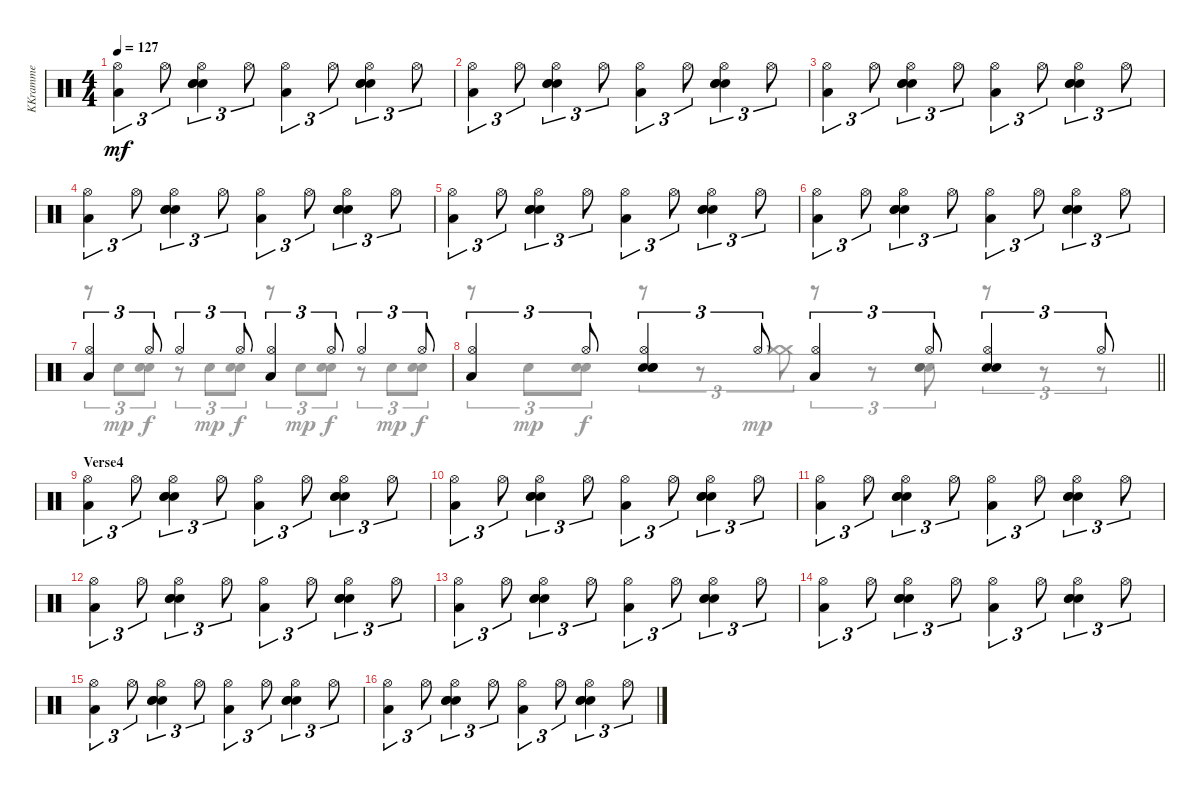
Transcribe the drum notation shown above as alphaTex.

\track ("KKramme" "KKramme") {instrument percussion}
\staff {score}
\articulation defaults
\voice
\ts (4 4)
\tempo 127
\clef neutral
\ks c
("Low Tom (hit)" "Hi-Hat (open)").4{tu (3 2) dy mf} "Hi-Hat (open)".8{tu (3 2)} ("Snare (hit) 2" "Snare (hit) 2" "Snare (hit) 2" "Hi-Hat (open)").4{tu (3 2)} "Hi-Hat (open)".8{tu (3 2)} ("Low Tom (hit)" "Hi-Hat (open)").4{tu (3 2)} "Hi-Hat (open)".8{tu (3 2)} ("Snare (hit) 2" "Snare (hit) 2" "Snare (hit) 2" "Hi-Hat (open)").4{tu (3 2)} "Hi-Hat (open)".8{tu (3 2)} |
("Low Tom (hit)" "Hi-Hat (open)").4{tu (3 2)} "Hi-Hat (open)".8{tu (3 2)} ("Snare (hit) 2" "Snare (hit) 2" "Snare (hit) 2" "Hi-Hat (open)").4{tu (3 2)} "Hi-Hat (open)".8{tu (3 2)} ("Low Tom (hit)" "Hi-Hat (open)").4{tu (3 2)} "Hi-Hat (open)".8{tu (3 2)} ("Snare (hit) 2" "Snare (hit) 2" "Snare (hit) 2" "Hi-Hat (open)").4{tu (3 2)} "Hi-Hat (open)".8{tu (3 2)} |
("Low Tom (hit)" "Hi-Hat (open)").4{tu (3 2)} "Hi-Hat (open)".8{tu (3 2)} ("Snare (hit) 2" "Snare (hit) 2" "Snare (hit) 2" "Hi-Hat (open)").4{tu (3 2)} "Hi-Hat (open)".8{tu (3 2)} ("Low Tom (hit)" "Hi-Hat (open)").4{tu (3 2)} "Hi-Hat (open)".8{tu (3 2)} ("Snare (hit) 2" "Snare (hit) 2" "Snare (hit) 2" "Hi-Hat (open)").4{tu (3 2)} "Hi-Hat (open)".8{tu (3 2)} |
("Low Tom (hit)" "Hi-Hat (open)").4{tu (3 2)} "Hi-Hat (open)".8{tu (3 2)} ("Snare (hit) 2" "Snare (hit) 2" "Snare (hit) 2" "Hi-Hat (open)").4{tu (3 2)} "Hi-Hat (open)".8{tu (3 2)} ("Low Tom (hit)" "Hi-Hat (open)").4{tu (3 2)} "Hi-Hat (open)".8{tu (3 2)} ("Snare (hit) 2" "Snare (hit) 2" "Snare (hit) 2" "Hi-Hat (open)").4{tu (3 2)} "Hi-Hat (open)".8{tu (3 2)} |
("Low Tom (hit)" "Hi-Hat (open)").4{tu (3 2)} "Hi-Hat (open)".8{tu (3 2)} ("Snare (hit) 2" "Snare (hit) 2" "Snare (hit) 2" "Hi-Hat (open)").4{tu (3 2)} "Hi-Hat (open)".8{tu (3 2)} ("Low Tom (hit)" "Hi-Hat (open)").4{tu (3 2)} "Hi-Hat (open)".8{tu (3 2)} ("Snare (hit) 2" "Snare (hit) 2" "Snare (hit) 2" "Hi-Hat (open)").4{tu (3 2)} "Hi-Hat (open)".8{tu (3 2)} |
("Low Tom (hit)" "Hi-Hat (open)").4{tu (3 2)} "Hi-Hat (open)".8{tu (3 2)} ("Snare (hit) 2" "Snare (hit) 2" "Snare (hit) 2" "Hi-Hat (open)").4{tu (3 2)} "Hi-Hat (open)".8{tu (3 2)} ("Low Tom (hit)" "Hi-Hat (open)").4{tu (3 2)} "Hi-Hat (open)".8{tu (3 2)} ("Snare (hit) 2" "Snare (hit) 2" "Snare (hit) 2" "Hi-Hat (open)").4{tu (3 2)} "Hi-Hat (open)".8{tu (3 2)} |
("Low Tom (hit)" "Hi-Hat (open)").4{tu (3 2)} "Hi-Hat (open)".8{tu (3 2)} "Hi-Hat (open)".4{tu (3 2)} "Hi-Hat (open)".8{tu (3 2)} ("Low Tom (hit)" "Hi-Hat (open)").4{tu (3 2)} "Hi-Hat (open)".8{tu (3 2)} "Hi-Hat (open)".4{tu (3 2)} "Hi-Hat (open)".8{tu (3 2)} |
\barLineRight lightlight
("Low Tom (hit)" "Hi-Hat (open)").4{tu (3 2)} "Hi-Hat (open)".8{tu (3 2)} ("Snare (hit) 2" "Snare (hit) 2" "Snare (hit) 2" "Hi-Hat (open)").4{tu (3 2)} "Hi-Hat (open)".8{tu (3 2)} ("Low Tom (hit)" "Hi-Hat (open)").4{tu (3 2)} "Hi-Hat (open)".8{tu (3 2)} ("Snare (hit) 2" "Snare (hit) 2" "Hi-Hat (open)").4{tu (3 2)} "Hi-Hat (open)".8{tu (3 2)} |
\section ("" "Verse4")
("Low Tom (hit)" "Hi-Hat (open)").4{tu (3 2)} "Hi-Hat (open)".8{tu (3 2)} ("Snare (hit) 2" "Snare (hit) 2" "Snare (hit) 2" "Hi-Hat (open)").4{tu (3 2)} "Hi-Hat (open)".8{tu (3 2)} ("Low Tom (hit)" "Hi-Hat (open)").4{tu (3 2)} "Hi-Hat (open)".8{tu (3 2)} ("Snare (hit) 2" "Snare (hit) 2" "Snare (hit) 2" "Hi-Hat (open)").4{tu (3 2)} "Hi-Hat (open)".8{tu (3 2)} |
("Low Tom (hit)" "Hi-Hat (open)").4{tu (3 2)} "Hi-Hat (open)".8{tu (3 2)} ("Snare (hit) 2" "Snare (hit) 2" "Snare (hit) 2" "Hi-Hat (open)").4{tu (3 2)} "Hi-Hat (open)".8{tu (3 2)} ("Low Tom (hit)" "Hi-Hat (open)").4{tu (3 2)} "Hi-Hat (open)".8{tu (3 2)} ("Snare (hit) 2" "Snare (hit) 2" "Snare (hit) 2" "Hi-Hat (open)").4{tu (3 2)} "Hi-Hat (open)".8{tu (3 2)} |
("Low Tom (hit)" "Hi-Hat (open)").4{tu (3 2)} "Hi-Hat (open)".8{tu (3 2)} ("Snare (hit) 2" "Snare (hit) 2" "Snare (hit) 2" "Hi-Hat (open)").4{tu (3 2)} "Hi-Hat (open)".8{tu (3 2)} ("Low Tom (hit)" "Hi-Hat (open)").4{tu (3 2)} "Hi-Hat (open)".8{tu (3 2)} ("Snare (hit) 2" "Snare (hit) 2" "Snare (hit) 2" "Hi-Hat (open)").4{tu (3 2)} "Hi-Hat (open)".8{tu (3 2)} |
("Low Tom (hit)" "Hi-Hat (open)").4{tu (3 2)} "Hi-Hat (open)".8{tu (3 2)} ("Snare (hit) 2" "Snare (hit) 2" "Snare (hit) 2" "Hi-Hat (open)").4{tu (3 2)} "Hi-Hat (open)".8{tu (3 2)} ("Low Tom (hit)" "Hi-Hat (open)").4{tu (3 2)} "Hi-Hat (open)".8{tu (3 2)} ("Snare (hit) 2" "Snare (hit) 2" "Snare (hit) 2" "Hi-Hat (open)").4{tu (3 2)} "Hi-Hat (open)".8{tu (3 2)} |
("Low Tom (hit)" "Hi-Hat (open)").4{tu (3 2)} "Hi-Hat (open)".8{tu (3 2)} ("Snare (hit) 2" "Snare (hit) 2" "Snare (hit) 2" "Hi-Hat (open)").4{tu (3 2)} "Hi-Hat (open)".8{tu (3 2)} ("Low Tom (hit)" "Hi-Hat (open)").4{tu (3 2)} "Hi-Hat (open)".8{tu (3 2)} ("Snare (hit) 2" "Snare (hit) 2" "Snare (hit) 2" "Hi-Hat (open)").4{tu (3 2)} "Hi-Hat (open)".8{tu (3 2)} |
("Low Tom (hit)" "Hi-Hat (open)").4{tu (3 2)} "Hi-Hat (open)".8{tu (3 2)} ("Snare (hit) 2" "Snare (hit) 2" "Snare (hit) 2" "Hi-Hat (open)").4{tu (3 2)} "Hi-Hat (open)".8{tu (3 2)} ("Low Tom (hit)" "Hi-Hat (open)").4{tu (3 2)} "Hi-Hat (open)".8{tu (3 2)} ("Snare (hit) 2" "Snare (hit) 2" "Snare (hit) 2" "Hi-Hat (open)").4{tu (3 2)} "Hi-Hat (open)".8{tu (3 2)} |
("Low Tom (hit)" "Hi-Hat (open)").4{tu (3 2)} "Hi-Hat (open)".8{tu (3 2)} ("Snare (hit) 2" "Snare (hit) 2" "Snare (hit) 2" "Hi-Hat (open)").4{tu (3 2)} "Hi-Hat (open)".8{tu (3 2)} ("Low Tom (hit)" "Hi-Hat (open)").4{tu (3 2)} "Hi-Hat (open)".8{tu (3 2)} ("Snare (hit) 2" "Snare (hit) 2" "Snare (hit) 2" "Hi-Hat (open)").4{tu (3 2)} "Hi-Hat (open)".8{tu (3 2)} |
("Low Tom (hit)" "Hi-Hat (open)").4{tu (3 2)} "Hi-Hat (open)".8{tu (3 2)} ("Snare (hit) 2" "Snare (hit) 2" "Snare (hit) 2" "Hi-Hat (open)").4{tu (3 2)} "Hi-Hat (open)".8{tu (3 2)} ("Low Tom (hit)" "Hi-Hat (open)").4{tu (3 2)} "Hi-Hat (open)".8{tu (3 2)} ("Snare (hit) 2" "Snare (hit) 2" "Snare (hit) 2" "Hi-Hat (open)").4{tu (3 2)} "Hi-Hat (open)".8{tu (3 2)}
\voice
\clef neutral
\ottava regular
\simile none
\ks c
|
|
|
|
|
|
r.8{tu (3 2)} "Snare (hit) 2".8{tu (3 2) dy mp} ("Snare (hit) 2" "Snare (hit) 2").8{tu (3 2) dy f} r.8{tu (3 2)} "Snare (hit) 2".8{tu (3 2) dy mp} ("Snare (hit) 2" "Snare (hit) 2").8{tu (3 2) dy f} r.8{tu (3 2)} "Snare (hit) 2".8{tu (3 2) dy mp} ("Snare (hit) 2" "Snare (hit) 2").8{tu (3 2) dy f} r.8{tu (3 2)} "Snare (hit) 2".8{tu (3 2) dy mp} ("Snare (hit) 2" "Snare (hit) 2").8{tu (3 2) dy f} |
\barLineRight lightlight
r.8{tu (3 2)} "Snare (hit) 2".8{tu (3 2) dy mp} ("Snare (hit) 2" "Snare (hit) 2").8{tu (3 2) dy f} r.8{tu (3 2)} r.8{tu (3 2)} ("Crash medium (hit)" "Crash medium (hit)").8{tu (3 2) dy mp} r.8{tu (3 2)} r.8{tu (3 2)} ("Snare (hit) 2" "Snare (hit) 2" "Snare (hit) 2").8{tu (3 2)} r.8{tu (3 2)} r.8{tu (3 2)} r.8{tu (3 2)} |
|
|
|
|
|
|
|
